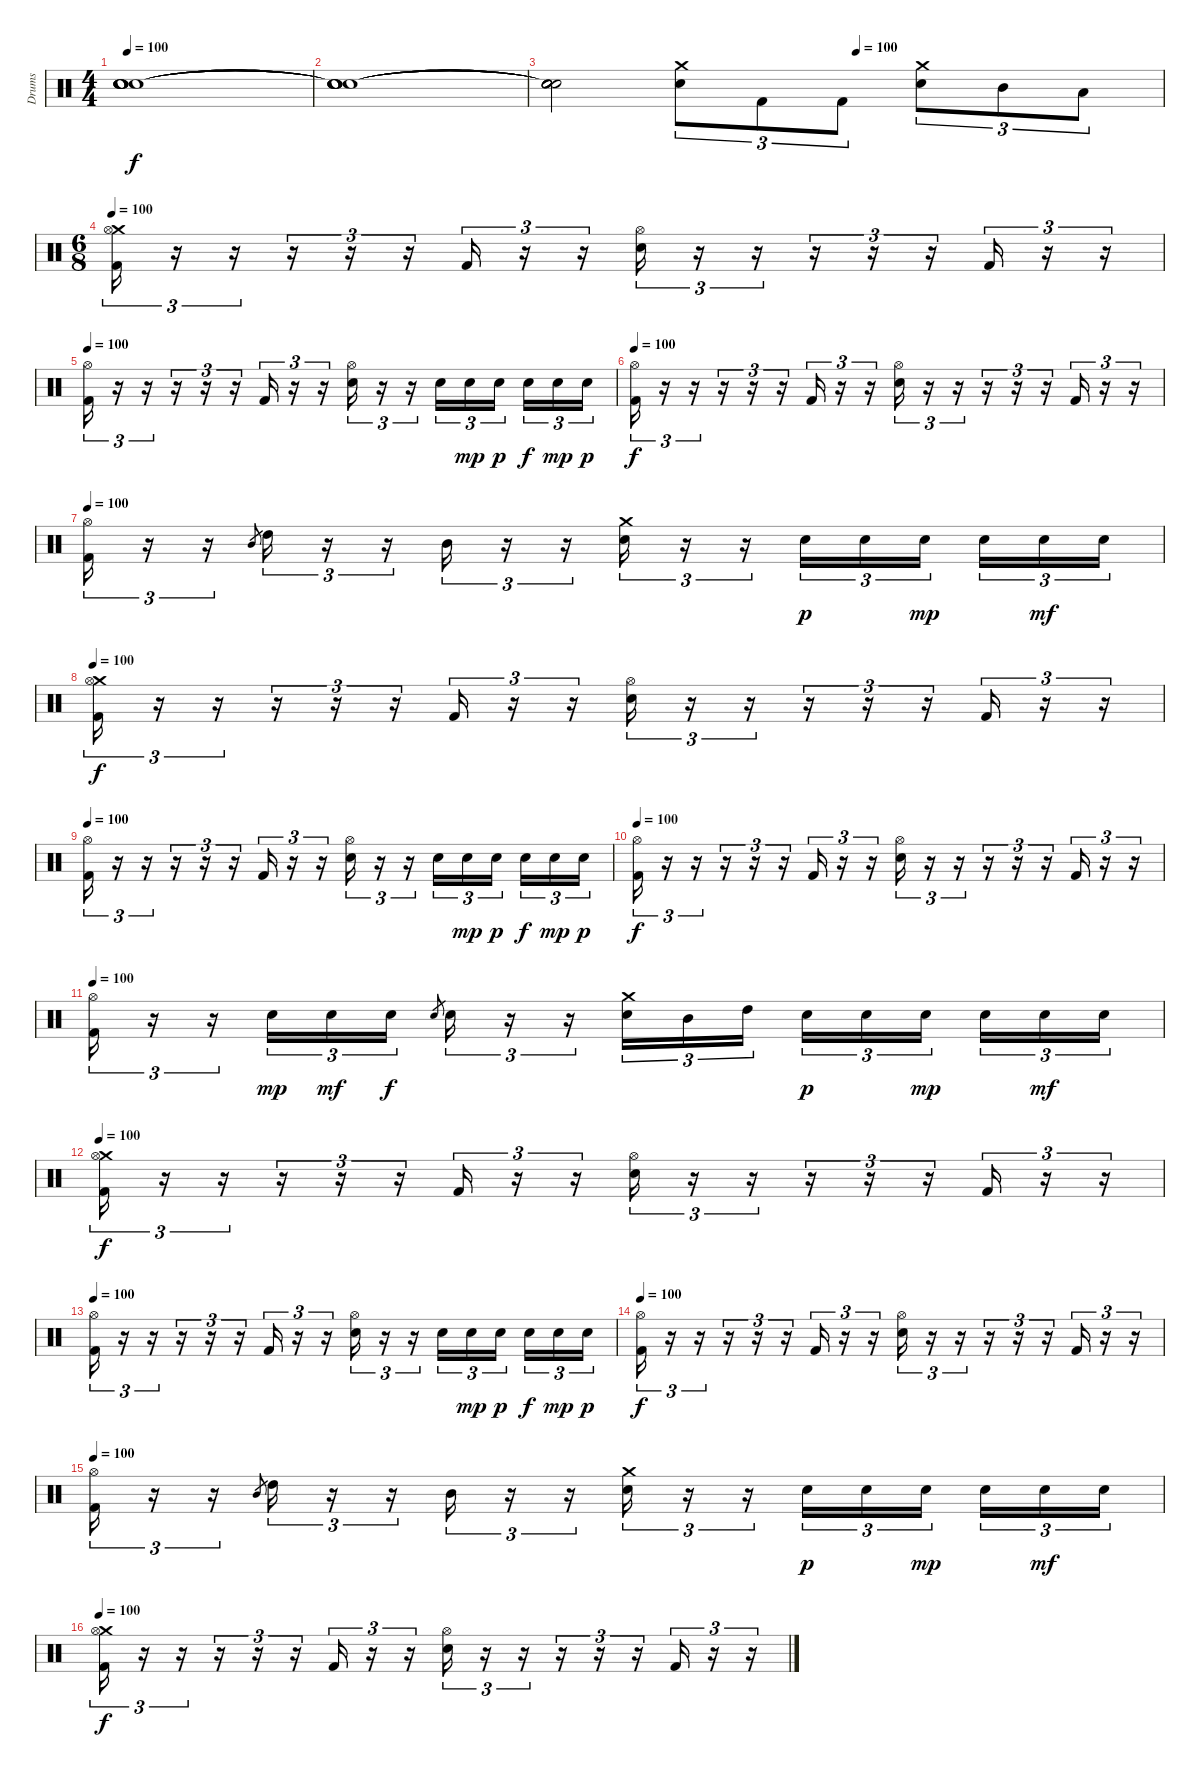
\track ("Drums" "Drums") {instrument percussion}
\staff {score}
\articulation defaults
\ts (4 4)
\tempo 100
\clef neutral
\ks c
("Snare (hit)"{t} "Snare (hit)"{t} "Snare (hit)"{t} "Snare (hit)"{t} "Snare (hit)"{t}).1{dy f} |
("Snare (hit)"{t} "Snare (hit)"{t} "Snare (hit)"{t} "Snare (hit)"{t} "Snare (hit)"{t}).1 |
\tempo (100 0.5)
("Snare (hit)"{t} "Snare (hit)"{t} "Snare (hit)"{t} "Snare (hit)"{t} "Snare (hit)"{t}).2 ("Crash medium (hit)" "Electric Snare (hit)").8{tu (3 2)} "Kick (hit) 2".8{tu (3 2)} "Kick (hit) 2".8{tu (3 2)} ("Crash medium (hit)" "Electric Snare (hit)").8{tu (3 2)} "Mid Tom (hit)".8{tu (3 2)} "Low Tom (hit)".8{tu (3 2)} |
\ts (6 8)
\tempo 100
("Crash medium (hit)" "Hi-Hat (open)" "Kick (hit) 2").16{tu (3 2)} r.16{tu (3 2)} r.16{tu (3 2)} r.16{tu (3 2)} r.16{tu (3 2)} r.16{tu (3 2)} "Kick (hit) 2".16{tu (3 2)} r.16{tu (3 2)} r.16{tu (3 2)} ("Hi-Hat (open)" "Electric Snare (hit)").16{tu (3 2)} r.16{tu (3 2)} r.16{tu (3 2)} r.16{tu (3 2)} r.16{tu (3 2)} r.16{tu (3 2)} "Kick (hit) 2".16{tu (3 2)} r.16{tu (3 2)} r.16{tu (3 2)} |
\tempo 100
("Hi-Hat (open)" "Kick (hit) 2").16{tu (3 2)} r.16{tu (3 2)} r.16{tu (3 2)} r.16{tu (3 2)} r.16{tu (3 2)} r.16{tu (3 2)} "Kick (hit) 2".16{tu (3 2)} r.16{tu (3 2)} r.16{tu (3 2)} ("Hi-Hat (open)" "Electric Snare (hit)").16{tu (3 2)} r.16{tu (3 2)} r.16{tu (3 2)} "Electric Snare (hit)".16{tu (3 2)} "Electric Snare (hit)".16{tu (3 2) dy mp} "Electric Snare (hit)".16{tu (3 2) dy p} "Electric Snare (hit)".16{tu (3 2) dy f} "Electric Snare (hit)".16{tu (3 2) dy mp} "Electric Snare (hit)".16{tu (3 2) dy p} |
\tempo 100
("Hi-Hat (open)" "Kick (hit) 2").16{tu (3 2) dy f} r.16{tu (3 2)} r.16{tu (3 2)} r.16{tu (3 2)} r.16{tu (3 2)} r.16{tu (3 2)} "Kick (hit) 2".16{tu (3 2)} r.16{tu (3 2)} r.16{tu (3 2)} ("Hi-Hat (open)" "Electric Snare (hit)").16{tu (3 2)} r.16{tu (3 2)} r.16{tu (3 2)} r.16{tu (3 2)} r.16{tu (3 2)} r.16{tu (3 2)} "Kick (hit) 2".16{tu (3 2)} r.16{tu (3 2)} r.16{tu (3 2)} |
\tempo 100
("Hi-Hat (open)" "Kick (hit) 2").16{tu (3 2)} r.16{tu (3 2)} r.16{tu (3 2)} "Mid Tom (hit)".8{gr} "High Tom (hit)".16{tu (3 2)} r.16{tu (3 2)} r.16{tu (3 2)} "Mid Tom (hit)".16{tu (3 2)} r.16{tu (3 2)} r.16{tu (3 2)} ("Crash medium (hit)" "Electric Snare (hit)").16{tu (3 2)} r.16{tu (3 2)} r.16{tu (3 2)} "Electric Snare (hit)".16{tu (3 2) dy p} "Electric Snare (hit)".16{tu (3 2)} "Electric Snare (hit)".16{tu (3 2) dy mp} "Electric Snare (hit)".16{tu (3 2)} "Electric Snare (hit)".16{tu (3 2) dy mf} "Electric Snare (hit)".16{tu (3 2)} |
\tempo 100
("Crash medium (hit)" "Hi-Hat (open)" "Kick (hit) 2").16{tu (3 2) dy f} r.16{tu (3 2)} r.16{tu (3 2)} r.16{tu (3 2)} r.16{tu (3 2)} r.16{tu (3 2)} "Kick (hit) 2".16{tu (3 2)} r.16{tu (3 2)} r.16{tu (3 2)} ("Hi-Hat (open)" "Electric Snare (hit)").16{tu (3 2)} r.16{tu (3 2)} r.16{tu (3 2)} r.16{tu (3 2)} r.16{tu (3 2)} r.16{tu (3 2)} "Kick (hit) 2".16{tu (3 2)} r.16{tu (3 2)} r.16{tu (3 2)} |
\tempo 100
("Hi-Hat (open)" "Kick (hit) 2").16{tu (3 2)} r.16{tu (3 2)} r.16{tu (3 2)} r.16{tu (3 2)} r.16{tu (3 2)} r.16{tu (3 2)} "Kick (hit) 2".16{tu (3 2)} r.16{tu (3 2)} r.16{tu (3 2)} ("Hi-Hat (open)" "Electric Snare (hit)").16{tu (3 2)} r.16{tu (3 2)} r.16{tu (3 2)} "Electric Snare (hit)".16{tu (3 2)} "Electric Snare (hit)".16{tu (3 2) dy mp} "Electric Snare (hit)".16{tu (3 2) dy p} "Electric Snare (hit)".16{tu (3 2) dy f} "Electric Snare (hit)".16{tu (3 2) dy mp} "Electric Snare (hit)".16{tu (3 2) dy p} |
\tempo 100
("Hi-Hat (open)" "Kick (hit) 2").16{tu (3 2) dy f} r.16{tu (3 2)} r.16{tu (3 2)} r.16{tu (3 2)} r.16{tu (3 2)} r.16{tu (3 2)} "Kick (hit) 2".16{tu (3 2)} r.16{tu (3 2)} r.16{tu (3 2)} ("Hi-Hat (open)" "Electric Snare (hit)").16{tu (3 2)} r.16{tu (3 2)} r.16{tu (3 2)} r.16{tu (3 2)} r.16{tu (3 2)} r.16{tu (3 2)} "Kick (hit) 2".16{tu (3 2)} r.16{tu (3 2)} r.16{tu (3 2)} |
\tempo 100
("Hi-Hat (open)" "Kick (hit) 2").16{tu (3 2)} r.16{tu (3 2)} r.16{tu (3 2)} "Electric Snare (hit)".16{tu (3 2) dy mp} "Electric Snare (hit)".16{tu (3 2) dy mf} "Electric Snare (hit)".16{tu (3 2) dy f} "Electric Snare (hit)".8{gr} "Electric Snare (hit)".16{tu (3 2)} r.16{tu (3 2)} r.16{tu (3 2)} ("Crash medium (hit)" "Electric Snare (hit)").16{tu (3 2)} "Mid Tom (hit)".16{tu (3 2)} "High Tom (hit)".16{tu (3 2)} "Electric Snare (hit)".16{tu (3 2) dy p} "Electric Snare (hit)".16{tu (3 2)} "Electric Snare (hit)".16{tu (3 2) dy mp} "Electric Snare (hit)".16{tu (3 2)} "Electric Snare (hit)".16{tu (3 2) dy mf} "Electric Snare (hit)".16{tu (3 2)} |
\tempo 100
("Crash medium (hit)" "Hi-Hat (open)" "Kick (hit) 2").16{tu (3 2) dy f} r.16{tu (3 2)} r.16{tu (3 2)} r.16{tu (3 2)} r.16{tu (3 2)} r.16{tu (3 2)} "Kick (hit) 2".16{tu (3 2)} r.16{tu (3 2)} r.16{tu (3 2)} ("Hi-Hat (open)" "Electric Snare (hit)").16{tu (3 2)} r.16{tu (3 2)} r.16{tu (3 2)} r.16{tu (3 2)} r.16{tu (3 2)} r.16{tu (3 2)} "Kick (hit) 2".16{tu (3 2)} r.16{tu (3 2)} r.16{tu (3 2)} |
\tempo 100
("Hi-Hat (open)" "Kick (hit) 2").16{tu (3 2)} r.16{tu (3 2)} r.16{tu (3 2)} r.16{tu (3 2)} r.16{tu (3 2)} r.16{tu (3 2)} "Kick (hit) 2".16{tu (3 2)} r.16{tu (3 2)} r.16{tu (3 2)} ("Hi-Hat (open)" "Electric Snare (hit)").16{tu (3 2)} r.16{tu (3 2)} r.16{tu (3 2)} "Electric Snare (hit)".16{tu (3 2)} "Electric Snare (hit)".16{tu (3 2) dy mp} "Electric Snare (hit)".16{tu (3 2) dy p} "Electric Snare (hit)".16{tu (3 2) dy f} "Electric Snare (hit)".16{tu (3 2) dy mp} "Electric Snare (hit)".16{tu (3 2) dy p} |
\tempo 100
("Hi-Hat (open)" "Kick (hit) 2").16{tu (3 2) dy f} r.16{tu (3 2)} r.16{tu (3 2)} r.16{tu (3 2)} r.16{tu (3 2)} r.16{tu (3 2)} "Kick (hit) 2".16{tu (3 2)} r.16{tu (3 2)} r.16{tu (3 2)} ("Hi-Hat (open)" "Electric Snare (hit)").16{tu (3 2)} r.16{tu (3 2)} r.16{tu (3 2)} r.16{tu (3 2)} r.16{tu (3 2)} r.16{tu (3 2)} "Kick (hit) 2".16{tu (3 2)} r.16{tu (3 2)} r.16{tu (3 2)} |
\tempo 100
("Hi-Hat (open)" "Kick (hit) 2").16{tu (3 2)} r.16{tu (3 2)} r.16{tu (3 2)} "Mid Tom (hit)".8{gr} "High Tom (hit)".16{tu (3 2)} r.16{tu (3 2)} r.16{tu (3 2)} "Mid Tom (hit)".16{tu (3 2)} r.16{tu (3 2)} r.16{tu (3 2)} ("Crash medium (hit)" "Electric Snare (hit)").16{tu (3 2)} r.16{tu (3 2)} r.16{tu (3 2)} "Electric Snare (hit)".16{tu (3 2) dy p} "Electric Snare (hit)".16{tu (3 2)} "Electric Snare (hit)".16{tu (3 2) dy mp} "Electric Snare (hit)".16{tu (3 2)} "Electric Snare (hit)".16{tu (3 2) dy mf} "Electric Snare (hit)".16{tu (3 2)} |
\tempo 100
("Crash medium (hit)" "Hi-Hat (open)" "Kick (hit) 2").16{tu (3 2) dy f} r.16{tu (3 2)} r.16{tu (3 2)} r.16{tu (3 2)} r.16{tu (3 2)} r.16{tu (3 2)} "Kick (hit) 2".16{tu (3 2)} r.16{tu (3 2)} r.16{tu (3 2)} ("Hi-Hat (open)" "Electric Snare (hit)").16{tu (3 2)} r.16{tu (3 2)} r.16{tu (3 2)} r.16{tu (3 2)} r.16{tu (3 2)} r.16{tu (3 2)} "Kick (hit) 2".16{tu (3 2)} r.16{tu (3 2)} r.16{tu (3 2)}
